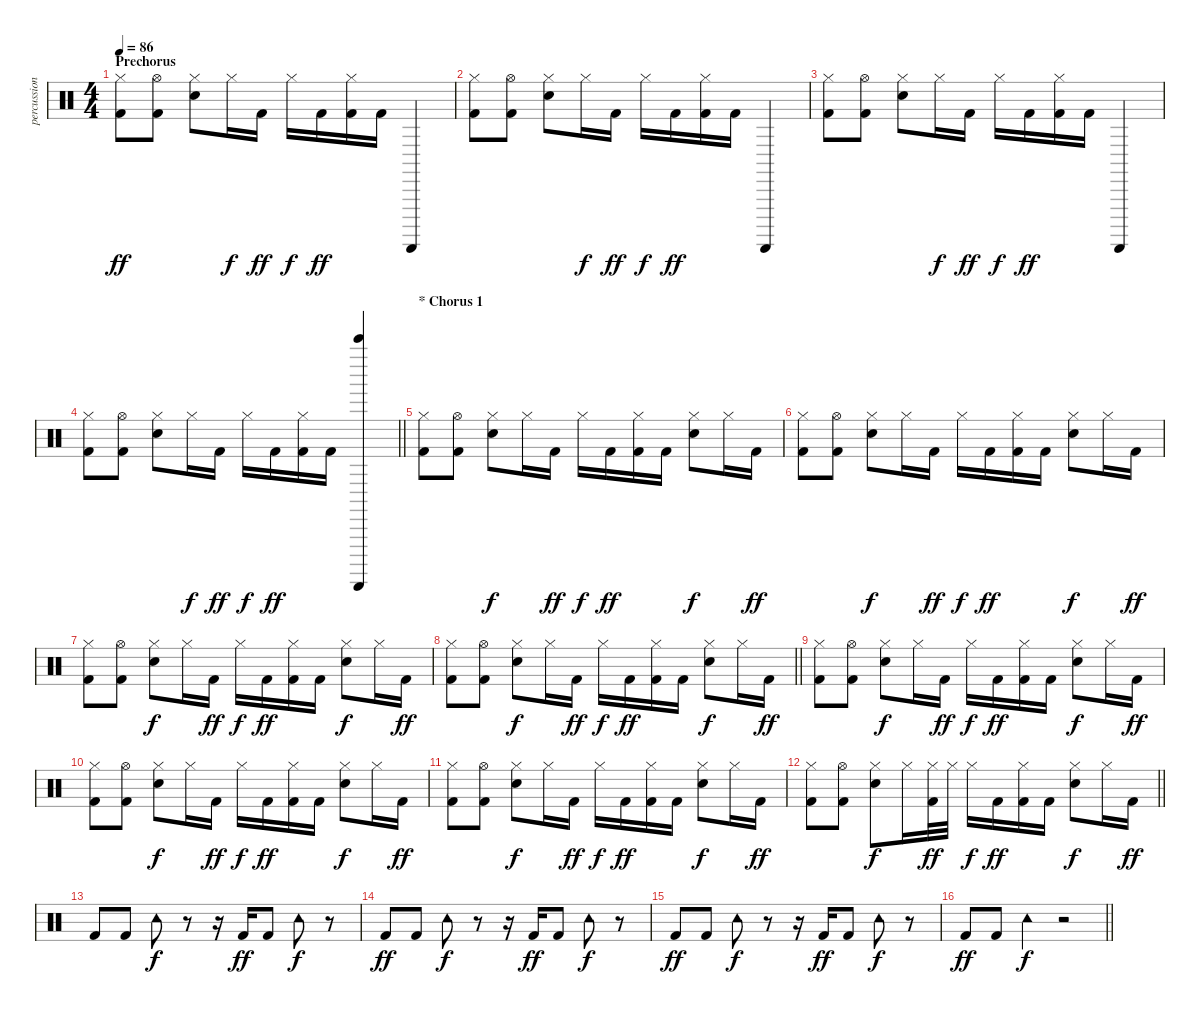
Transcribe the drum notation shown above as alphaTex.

\track ("percussion" "percussion") {instrument percussion}
\staff {score}
\articulation defaults
\ts (4 4)
\section ("" "Prechorus")
\tempo 86
\clef neutral
\ks c
("Hi-Hat (closed)" "Kick (hit) 2").8{dy ff} ("Hi-Hat (open)" "Kick (hit) 2").8 ("Electric Snare (hit)" "Hi-Hat (closed)").8 "Hi-Hat (closed)".16{dy f} "Kick (hit) 2".16{dy ff} "Hi-Hat (closed)".16{dy f} "Kick (hit) 2".16{dy ff} ("Hi-Hat (closed)" "Kick (hit) 2").16 "Kick (hit) 2".16 "Guiro (scrap-return)".4 |
("Hi-Hat (closed)" "Kick (hit) 2").8 ("Hi-Hat (open)" "Kick (hit) 2").8 ("Electric Snare (hit)" "Hi-Hat (closed)").8 "Hi-Hat (closed)".16{dy f} "Kick (hit) 2".16{dy ff} "Hi-Hat (closed)".16{dy f} "Kick (hit) 2".16{dy ff} ("Hi-Hat (closed)" "Kick (hit) 2").16 "Kick (hit) 2".16 "Guiro (scrap-return)".4 |
("Hi-Hat (closed)" "Kick (hit) 2").8 ("Hi-Hat (open)" "Kick (hit) 2").8 ("Electric Snare (hit)" "Hi-Hat (closed)").8 "Hi-Hat (closed)".16{dy f} "Kick (hit) 2".16{dy ff} "Hi-Hat (closed)".16{dy f} "Kick (hit) 2".16{dy ff} ("Hi-Hat (closed)" "Kick (hit) 2").16 "Kick (hit) 2".16 "Guiro (scrap-return)".4 |
\barLineRight lightlight
("Hi-Hat (closed)" "Kick (hit) 2").8 ("Hi-Hat (open)" "Kick (hit) 2").8 ("Electric Snare (hit)" "Hi-Hat (closed)").8 "Hi-Hat (closed)".16{dy f} "Kick (hit) 2".16{dy ff} "Hi-Hat (closed)".16{dy f} "Kick (hit) 2".16{dy ff} ("Hi-Hat (closed)" "Kick (hit) 2").16 "Kick (hit) 2".16 ("Guiro (scrap-return)" "Bell Tree (hit)").4 |
\section ("" "* Chorus 1")
("Hi-Hat (closed)" "Kick (hit) 2").8 ("Hi-Hat (open)" "Kick (hit) 2").8 ("Electric Snare (hit)" "Hi-Hat (closed)").8{dy f} "Hi-Hat (closed)".16 "Kick (hit) 2".16{dy ff} "Hi-Hat (closed)".16{dy f} "Kick (hit) 2".16{dy ff} ("Hi-Hat (closed)" "Kick (hit) 2").16 "Kick (hit) 2".16 ("Electric Snare (hit)" "Hi-Hat (closed)").8{dy f} "Hi-Hat (closed)".16 "Kick (hit) 2".16{dy ff} |
("Hi-Hat (closed)" "Kick (hit) 2").8 ("Hi-Hat (open)" "Kick (hit) 2").8 ("Electric Snare (hit)" "Hi-Hat (closed)").8{dy f} "Hi-Hat (closed)".16 "Kick (hit) 2".16{dy ff} "Hi-Hat (closed)".16{dy f} "Kick (hit) 2".16{dy ff} ("Hi-Hat (closed)" "Kick (hit) 2").16 "Kick (hit) 2".16 ("Electric Snare (hit)" "Hi-Hat (closed)").8{dy f} "Hi-Hat (closed)".16 "Kick (hit) 2".16{dy ff} |
("Hi-Hat (closed)" "Kick (hit) 2").8 ("Hi-Hat (open)" "Kick (hit) 2").8 ("Electric Snare (hit)" "Hi-Hat (closed)").8{dy f} "Hi-Hat (closed)".16 "Kick (hit) 2".16{dy ff} "Hi-Hat (closed)".16{dy f} "Kick (hit) 2".16{dy ff} ("Hi-Hat (closed)" "Kick (hit) 2").16 "Kick (hit) 2".16 ("Electric Snare (hit)" "Hi-Hat (closed)").8{dy f} "Hi-Hat (closed)".16 "Kick (hit) 2".16{dy ff} |
\barLineRight lightlight
("Hi-Hat (closed)" "Kick (hit) 2").8 ("Hi-Hat (open)" "Kick (hit) 2").8 ("Electric Snare (hit)" "Hi-Hat (closed)").8{dy f} "Hi-Hat (closed)".16 "Kick (hit) 2".16{dy ff} "Hi-Hat (closed)".16{dy f} "Kick (hit) 2".16{dy ff} ("Hi-Hat (closed)" "Kick (hit) 2").16 "Kick (hit) 2".16 ("Electric Snare (hit)" "Hi-Hat (closed)").8{dy f} "Hi-Hat (closed)".16 "Kick (hit) 2".16{dy ff} |
("Hi-Hat (closed)" "Kick (hit) 2").8 ("Hi-Hat (open)" "Kick (hit) 2").8 ("Electric Snare (hit)" "Hi-Hat (closed)").8{dy f} "Hi-Hat (closed)".16 "Kick (hit) 2".16{dy ff} "Hi-Hat (closed)".16{dy f} "Kick (hit) 2".16{dy ff} ("Hi-Hat (closed)" "Kick (hit) 2").16 "Kick (hit) 2".16 ("Electric Snare (hit)" "Hi-Hat (closed)").8{dy f} "Hi-Hat (closed)".16 "Kick (hit) 2".16{dy ff} |
("Hi-Hat (closed)" "Kick (hit) 2").8 ("Hi-Hat (open)" "Kick (hit) 2").8 ("Electric Snare (hit)" "Hi-Hat (closed)").8{dy f} "Hi-Hat (closed)".16 "Kick (hit) 2".16{dy ff} "Hi-Hat (closed)".16{dy f} "Kick (hit) 2".16{dy ff} ("Hi-Hat (closed)" "Kick (hit) 2").16 "Kick (hit) 2".16 ("Electric Snare (hit)" "Hi-Hat (closed)").8{dy f} "Hi-Hat (closed)".16 "Kick (hit) 2".16{dy ff} |
("Hi-Hat (closed)" "Kick (hit) 2").8 ("Hi-Hat (open)" "Kick (hit) 2").8 ("Electric Snare (hit)" "Hi-Hat (closed)").8{dy f} "Hi-Hat (closed)".16 "Kick (hit) 2".16{dy ff} "Hi-Hat (closed)".16{dy f} "Kick (hit) 2".16{dy ff} ("Hi-Hat (closed)" "Kick (hit) 2").16 "Kick (hit) 2".16 ("Electric Snare (hit)" "Hi-Hat (closed)").8{dy f} "Hi-Hat (closed)".16 "Kick (hit) 2".16{dy ff} |
\barLineRight lightlight
("Hi-Hat (closed)" "Kick (hit) 2").8 ("Hi-Hat (open)" "Kick (hit) 2").8 ("Electric Snare (hit)" "Hi-Hat (closed)").8{dy f} "Hi-Hat (closed)".16 ("Hi-Hat (closed)" "Kick (hit) 2").32{dy ff} "Hi-Hat (closed)".32 "Hi-Hat (closed)".16{dy f} "Kick (hit) 2".16{dy ff} ("Hi-Hat (closed)" "Kick (hit) 2").16 "Kick (hit) 2".16 ("Electric Snare (hit)" "Hi-Hat (closed)").8{dy f} "Hi-Hat (closed)".16 "Kick (hit) 2".16{dy ff} |
"Kick (hit) 2".8 "Kick (hit) 2".8 "Tambourine (hit)".8{dy f} r.8 r.16 "Kick (hit) 2".16{dy ff} "Kick (hit) 2".8 "Tambourine (hit)".8{dy f} r.8 |
"Kick (hit) 2".8{dy ff} "Kick (hit) 2".8 "Tambourine (hit)".8{dy f} r.8 r.16 "Kick (hit) 2".16{dy ff} "Kick (hit) 2".8 "Tambourine (hit)".8{dy f} r.8 |
"Kick (hit) 2".8{dy ff} "Kick (hit) 2".8 "Tambourine (hit)".8{dy f} r.8 r.16 "Kick (hit) 2".16{dy ff} "Kick (hit) 2".8 "Tambourine (hit)".8{dy f} r.8 |
\barLineRight lightlight "Kick (hit) 2".8{dy ff} "Kick (hit) 2".8 "Tambourine (hit)".4{dy f}
r.2
